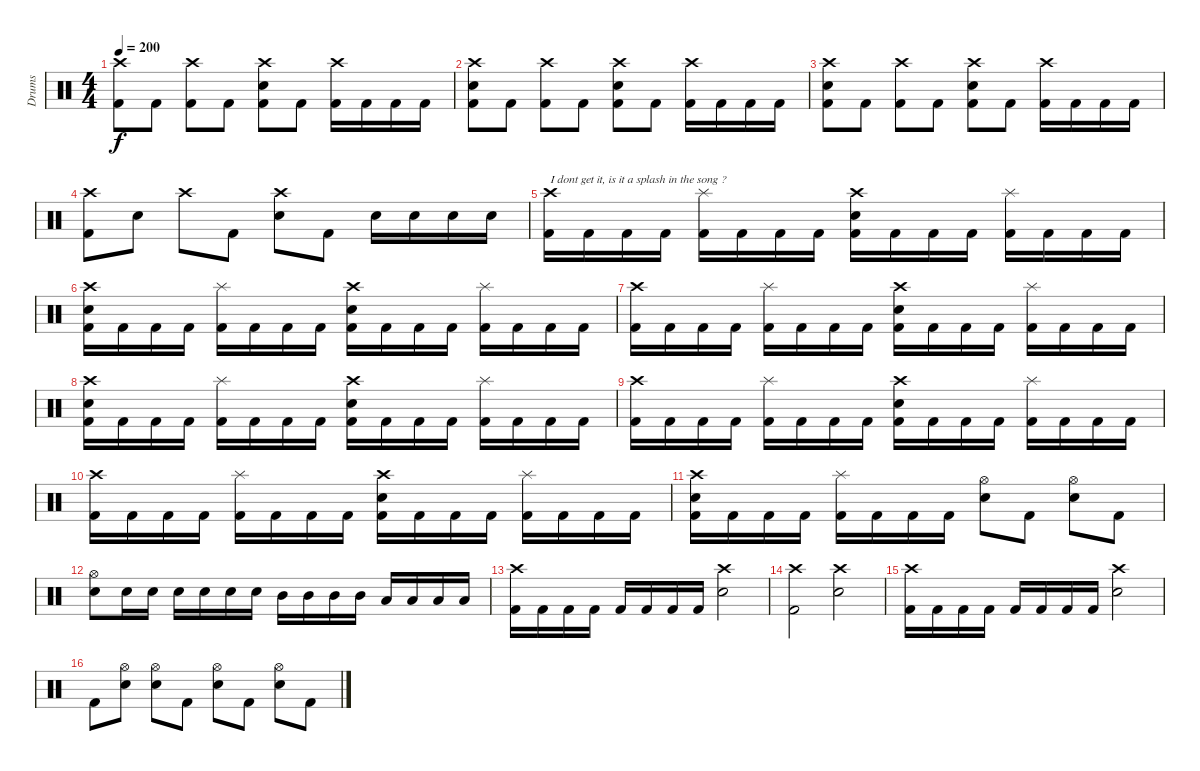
\track ("Drums" "Drums") {instrument percussion}
\staff {score}
\articulation defaults
\ts (4 4)
\tempo 200
\clef neutral
\ks c
("Crash high (hit)" "Kick (hit) 2").8{dy f} "Kick (hit) 2".8 ("Crash high (hit)" "Kick (hit) 2").8 "Kick (hit) 2".8 ("Crash high (hit)" "Snare (hit) 2" "Kick (hit) 2").8 "Kick (hit) 2".8 ("Crash high (hit)" "Kick (hit) 2").16 "Kick (hit) 2".16 "Kick (hit) 2".16 "Kick (hit) 2".16 |
("Crash high (hit)" "Snare (hit) 2" "Kick (hit) 2").8 "Kick (hit) 2".8 ("Crash high (hit)" "Kick (hit) 2").8 "Kick (hit) 2".8 ("Crash high (hit)" "Snare (hit) 2" "Kick (hit) 2").8 "Kick (hit) 2".8 ("Crash high (hit)" "Kick (hit) 2").16 "Kick (hit) 2".16 "Kick (hit) 2".16 "Kick (hit) 2".16 |
("Crash high (hit)" "Snare (hit) 2" "Kick (hit) 2").8 "Kick (hit) 2".8 ("Crash high (hit)" "Kick (hit) 2").8 "Kick (hit) 2".8 ("Crash high (hit)" "Snare (hit) 2" "Kick (hit) 2").8 "Kick (hit) 2".8 ("Crash high (hit)" "Kick (hit) 2").16 "Kick (hit) 2".16 "Kick (hit) 2".16 "Kick (hit) 2".16 |
("Crash high (hit)" "Kick (hit) 2").8 "Snare (hit) 2".8 "Crash high (hit)".8 "Kick (hit) 2".8 ("Crash high (hit)" "Snare (hit) 2").8 "Kick (hit) 2".8 "Snare (hit) 2".16 "Snare (hit) 2".16 "Snare (hit) 2".16 "Snare (hit) 2".16 |
("Crash high (hit)" "Kick (hit) 2").16{txt "I dont get it, is it a splash in the song ?"} "Kick (hit) 2".16 "Kick (hit) 2".16 "Kick (hit) 2".16 ("Splash (hit)" "Kick (hit) 2").16 "Kick (hit) 2".16 "Kick (hit) 2".16 "Kick (hit) 2".16 ("Crash high (hit)" "Snare (hit) 2" "Kick (hit) 2").16 "Kick (hit) 2".16 "Kick (hit) 2".16 "Kick (hit) 2".16 ("Splash (hit)" "Kick (hit) 2").16 "Kick (hit) 2".16 "Kick (hit) 2".16 "Kick (hit) 2".16 |
("Crash high (hit)" "Snare (hit) 2" "Kick (hit) 2").16 "Kick (hit) 2".16 "Kick (hit) 2".16 "Kick (hit) 2".16 ("Splash (hit)" "Kick (hit) 2").16 "Kick (hit) 2".16 "Kick (hit) 2".16 "Kick (hit) 2".16 ("Crash high (hit)" "Snare (hit) 2" "Kick (hit) 2").16 "Kick (hit) 2".16 "Kick (hit) 2".16 "Kick (hit) 2".16 ("Splash (hit)" "Kick (hit) 2").16 "Kick (hit) 2".16 "Kick (hit) 2".16 "Kick (hit) 2".16 |
("Crash high (hit)" "Kick (hit) 2").16 "Kick (hit) 2".16 "Kick (hit) 2".16 "Kick (hit) 2".16 ("Splash (hit)" "Kick (hit) 2").16 "Kick (hit) 2".16 "Kick (hit) 2".16 "Kick (hit) 2".16 ("Crash high (hit)" "Snare (hit) 2" "Kick (hit) 2").16 "Kick (hit) 2".16 "Kick (hit) 2".16 "Kick (hit) 2".16 ("Splash (hit)" "Kick (hit) 2").16 "Kick (hit) 2".16 "Kick (hit) 2".16 "Kick (hit) 2".16 |
("Crash high (hit)" "Snare (hit) 2" "Kick (hit) 2").16 "Kick (hit) 2".16 "Kick (hit) 2".16 "Kick (hit) 2".16 ("Splash (hit)" "Kick (hit) 2").16 "Kick (hit) 2".16 "Kick (hit) 2".16 "Kick (hit) 2".16 ("Crash high (hit)" "Snare (hit) 2" "Kick (hit) 2").16 "Kick (hit) 2".16 "Kick (hit) 2".16 "Kick (hit) 2".16 ("Splash (hit)" "Kick (hit) 2").16 "Kick (hit) 2".16 "Kick (hit) 2".16 "Kick (hit) 2".16 |
("Crash high (hit)" "Kick (hit) 2").16 "Kick (hit) 2".16 "Kick (hit) 2".16 "Kick (hit) 2".16 ("Splash (hit)" "Kick (hit) 2").16 "Kick (hit) 2".16 "Kick (hit) 2".16 "Kick (hit) 2".16 ("Crash high (hit)" "Snare (hit) 2" "Kick (hit) 2").16 "Kick (hit) 2".16 "Kick (hit) 2".16 "Kick (hit) 2".16 ("Splash (hit)" "Kick (hit) 2").16 "Kick (hit) 2".16 "Kick (hit) 2".16 "Kick (hit) 2".16 |
("Crash high (hit)" "Kick (hit) 2").16 "Kick (hit) 2".16 "Kick (hit) 2".16 "Kick (hit) 2".16 ("Splash (hit)" "Kick (hit) 2").16 "Kick (hit) 2".16 "Kick (hit) 2".16 "Kick (hit) 2".16 ("Crash high (hit)" "Snare (hit) 2" "Kick (hit) 2").16 "Kick (hit) 2".16 "Kick (hit) 2".16 "Kick (hit) 2".16 ("Splash (hit)" "Kick (hit) 2").16 "Kick (hit) 2".16 "Kick (hit) 2".16 "Kick (hit) 2".16 |
("Crash high (hit)" "Snare (hit) 2" "Kick (hit) 2").16 "Kick (hit) 2".16 "Kick (hit) 2".16 "Kick (hit) 2".16 ("Splash (hit)" "Kick (hit) 2").16 "Kick (hit) 2".16 "Kick (hit) 2".16 "Kick (hit) 2".16 ("Snare (hit) 2" "Hi-Hat (open)").8 "Kick (hit) 2".8 ("Snare (hit) 2" "Hi-Hat (open)").8 "Kick (hit) 2".8 |
("Snare (hit) 2" "Hi-Hat (open)").8 "Snare (hit) 2".16 "Snare (hit) 2".16 "Snare (hit) 2".16 "Snare (hit) 2".16 "Snare (hit) 2".16 "Snare (hit) 2".16 "Mid Tom (hit)".16 "Mid Tom (hit)".16 "Mid Tom (hit)".16 "Mid Tom (hit)".16 "Low Tom (hit)".16 "Low Tom (hit)".16 "Low Tom (hit)".16 "Low Tom (hit)".16 |
("Crash high (hit)" "Kick (hit) 2").16 "Kick (hit) 2".16 "Kick (hit) 2".16 "Kick (hit) 2".16 "Kick (hit) 2".16 "Kick (hit) 2".16 "Kick (hit) 2".16 "Kick (hit) 2".16 ("Crash high (hit)" "Snare (hit) 2").2 |
("Crash high (hit)" "Kick (hit) 2").2 ("Crash high (hit)" "Snare (hit) 2").2 |
("Crash high (hit)" "Kick (hit) 2").16 "Kick (hit) 2".16 "Kick (hit) 2".16 "Kick (hit) 2".16 "Kick (hit) 2".16 "Kick (hit) 2".16 "Kick (hit) 2".16 "Kick (hit) 2".16 ("Crash high (hit)" "Snare (hit) 2").2 |
"Kick (hit) 2".8 ("Snare (hit) 2" "Hi-Hat (open)").8 ("Snare (hit) 2" "Hi-Hat (open)").8 "Kick (hit) 2".8 ("Snare (hit) 2" "Hi-Hat (open)").8 "Kick (hit) 2".8 ("Snare (hit) 2" "Hi-Hat (open)").8 "Kick (hit) 2".8
